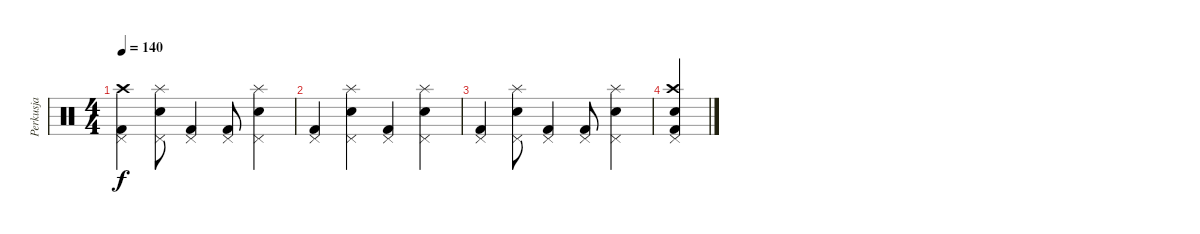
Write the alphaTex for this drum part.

\track ("Perkusja" "Perkusja") {instrument percussion}
\staff {score}
\articulation defaults
\ts (4 4)
\tempo 140
\clef neutral
\ks c
("Pedal Hi-Hat (hit)" "Kick (hit) 2" "Crash high (hit)").4{dy f} ("Pedal Hi-Hat (hit)" "Snare (hit) 2" "Splash (hit)").8 ("Pedal Hi-Hat (hit)" "Kick (hit) 2").4 ("Pedal Hi-Hat (hit)" "Kick (hit) 2").8 ("Pedal Hi-Hat (hit)" "Snare (hit) 2" "Splash (hit)").4 |
("Pedal Hi-Hat (hit)" "Kick (hit) 2").4 ("Pedal Hi-Hat (hit)" "Snare (hit) 2" "Splash (hit)").4 ("Pedal Hi-Hat (hit)" "Kick (hit) 2").4 ("Pedal Hi-Hat (hit)" "Snare (hit) 2" "Splash (hit)").4 |
("Pedal Hi-Hat (hit)" "Kick (hit) 2").4 ("Pedal Hi-Hat (hit)" "Snare (hit) 2" "Splash (hit)").8 ("Pedal Hi-Hat (hit)" "Kick (hit) 2").4 ("Pedal Hi-Hat (hit)" "Kick (hit) 2").8 ("Pedal Hi-Hat (hit)" "Snare (hit) 2" "Splash (hit)").4 |
("Pedal Hi-Hat (hit)" "Kick (hit) 2" "Crash high (hit)" "Snare (hit) 2").4
